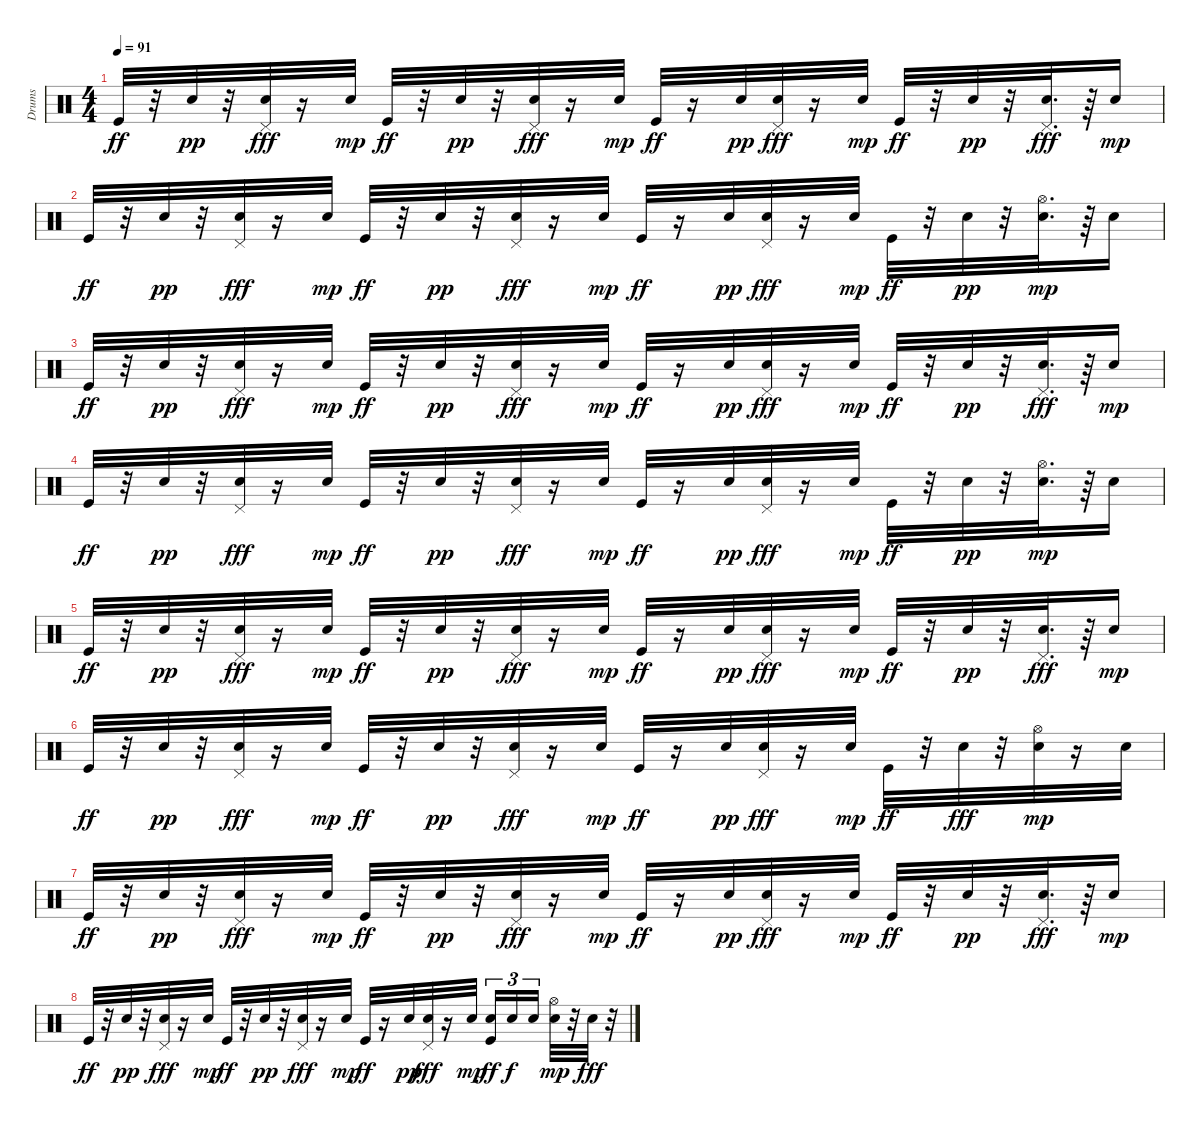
\track ("Drums" "Drums") {instrument percussion}
\staff {score}
\articulation defaults
\ts (4 4)
\tempo 91
\clef neutral
\ks c "Kick (hit)".32{dy ff}
r.32 "Snare (hit) 2".32{dy pp} r.32 ("Snare (hit) 2" "Pedal Hi-Hat (hit)").32{dy fff} r.16 "Snare (hit) 2".32{dy mp} "Kick (hit)".32{dy ff} r.32 "Snare (hit) 2".32{dy pp} r.32 ("Snare (hit) 2" "Pedal Hi-Hat (hit)").32{dy fff} r.16 "Snare (hit) 2".32{dy mp} "Kick (hit)".32{dy ff} r.16 "Snare (hit) 2".32{dy pp} ("Snare (hit) 2" "Pedal Hi-Hat (hit)").32{dy fff} r.16 "Snare (hit) 2".32{dy mp} "Kick (hit)".32{dy ff} r.32 "Snare (hit) 2".32{dy pp} r.32 ("Snare (hit) 2" "Pedal Hi-Hat (hit)").32{d dy fff} r.64 "Snare (hit) 2".16{dy mp} |
"Kick (hit)".32{dy ff} r.32 "Snare (hit) 2".32{dy pp} r.32 ("Snare (hit) 2" "Pedal Hi-Hat (hit)").32{dy fff} r.16 "Snare (hit) 2".32{dy mp} "Kick (hit)".32{dy ff} r.32 "Snare (hit) 2".32{dy pp} r.32 ("Snare (hit) 2" "Pedal Hi-Hat (hit)").32{dy fff} r.16 "Snare (hit) 2".32{dy mp} "Kick (hit)".32{dy ff} r.16 "Snare (hit) 2".32{dy pp} ("Snare (hit) 2" "Pedal Hi-Hat (hit)").32{dy fff} r.16 "Snare (hit) 2".32{dy mp} "Kick (hit)".32{dy ff} r.32 "Snare (hit) 2".32{dy pp} r.32 ("Snare (hit) 2" "Hi-Hat (open)").32{d dy mp} r.64 "Snare (hit) 2".16 |
"Kick (hit)".32{dy ff} r.32 "Snare (hit) 2".32{dy pp} r.32 ("Snare (hit) 2" "Pedal Hi-Hat (hit)").32{dy fff} r.16 "Snare (hit) 2".32{dy mp} "Kick (hit)".32{dy ff} r.32 "Snare (hit) 2".32{dy pp} r.32 ("Snare (hit) 2" "Pedal Hi-Hat (hit)").32{dy fff} r.16 "Snare (hit) 2".32{dy mp} "Kick (hit)".32{dy ff} r.16 "Snare (hit) 2".32{dy pp} ("Snare (hit) 2" "Pedal Hi-Hat (hit)").32{dy fff} r.16 "Snare (hit) 2".32{dy mp} "Kick (hit)".32{dy ff} r.32 "Snare (hit) 2".32{dy pp} r.32 ("Snare (hit) 2" "Pedal Hi-Hat (hit)").32{d dy fff} r.64 "Snare (hit) 2".16{dy mp} |
"Kick (hit)".32{dy ff} r.32 "Snare (hit) 2".32{dy pp} r.32 ("Snare (hit) 2" "Pedal Hi-Hat (hit)").32{dy fff} r.16 "Snare (hit) 2".32{dy mp} "Kick (hit)".32{dy ff} r.32 "Snare (hit) 2".32{dy pp} r.32 ("Snare (hit) 2" "Pedal Hi-Hat (hit)").32{dy fff} r.16 "Snare (hit) 2".32{dy mp} "Kick (hit)".32{dy ff} r.16 "Snare (hit) 2".32{dy pp} ("Snare (hit) 2" "Pedal Hi-Hat (hit)").32{dy fff} r.16 "Snare (hit) 2".32{dy mp} "Kick (hit)".32{dy ff} r.32 "Snare (hit) 2".32{dy pp} r.32 ("Snare (hit) 2" "Hi-Hat (open)").32{d dy mp} r.64 "Snare (hit) 2".16 |
"Kick (hit)".32{dy ff} r.32 "Snare (hit) 2".32{dy pp} r.32 ("Snare (hit) 2" "Pedal Hi-Hat (hit)").32{dy fff} r.16 "Snare (hit) 2".32{dy mp} "Kick (hit)".32{dy ff} r.32 "Snare (hit) 2".32{dy pp} r.32 ("Snare (hit) 2" "Pedal Hi-Hat (hit)").32{dy fff} r.16 "Snare (hit) 2".32{dy mp} "Kick (hit)".32{dy ff} r.16 "Snare (hit) 2".32{dy pp} ("Snare (hit) 2" "Pedal Hi-Hat (hit)").32{dy fff} r.16 "Snare (hit) 2".32{dy mp} "Kick (hit)".32{dy ff} r.32 "Snare (hit) 2".32{dy pp} r.32 ("Snare (hit) 2" "Pedal Hi-Hat (hit)").32{d dy fff} r.64 "Snare (hit) 2".16{dy mp} |
"Kick (hit)".32{dy ff} r.32 "Snare (hit) 2".32{dy pp} r.32 ("Snare (hit) 2" "Pedal Hi-Hat (hit)").32{dy fff} r.16 "Snare (hit) 2".32{dy mp} "Kick (hit)".32{dy ff} r.32 "Snare (hit) 2".32{dy pp} r.32 ("Snare (hit) 2" "Pedal Hi-Hat (hit)").32{dy fff} r.16 "Snare (hit) 2".32{dy mp} "Kick (hit)".32{dy ff} r.16 "Snare (hit) 2".32{dy pp} ("Snare (hit) 2" "Pedal Hi-Hat (hit)").32{dy fff} r.16 "Snare (hit) 2".32{dy mp} "Kick (hit)".32{dy ff} r.32 "Snare (hit) 2".32{dy fff} r.32 ("Snare (hit) 2" "Hi-Hat (open)").32{dy mp} r.16 "Snare (hit) 2".32 |
"Kick (hit)".32{dy ff} r.32 "Snare (hit) 2".32{dy pp} r.32 ("Snare (hit) 2" "Pedal Hi-Hat (hit)").32{dy fff} r.16 "Snare (hit) 2".32{dy mp} "Kick (hit)".32{dy ff} r.32 "Snare (hit) 2".32{dy pp} r.32 ("Snare (hit) 2" "Pedal Hi-Hat (hit)").32{dy fff} r.16 "Snare (hit) 2".32{dy mp} "Kick (hit)".32{dy ff} r.16 "Snare (hit) 2".32{dy pp} ("Snare (hit) 2" "Pedal Hi-Hat (hit)").32{dy fff} r.16 "Snare (hit) 2".32{dy mp} "Kick (hit)".32{dy ff} r.32 "Snare (hit) 2".32{dy pp} r.32 ("Snare (hit) 2" "Pedal Hi-Hat (hit)").32{d dy fff} r.64 "Snare (hit) 2".16{dy mp} |
"Kick (hit)".32{dy ff} r.32 "Snare (hit) 2".32{dy pp} r.32 ("Snare (hit) 2" "Pedal Hi-Hat (hit)").32{dy fff} r.16 "Snare (hit) 2".32{dy mp} "Kick (hit)".32{dy ff} r.32 "Snare (hit) 2".32{dy pp} r.32 ("Snare (hit) 2" "Pedal Hi-Hat (hit)").32{dy fff} r.16 "Snare (hit) 2".32{dy mp} "Kick (hit)".32{dy ff} r.16 "Snare (hit) 2".32{dy pp} ("Snare (hit) 2" "Pedal Hi-Hat (hit)").32{dy fff} r.16 "Snare (hit) 2".32{dy mp} ("Kick (hit)" "Snare (hit) 2").16{tu (3 2) dy ff} "Snare (hit) 2".16{tu (3 2) dy f} "Snare (hit) 2".16{tu (3 2) beam splitsecondary} ("Snare (hit) 2" "Hi-Hat (open)").32{dy mp} r.32 "Snare (hit) 2".32{dy fff} r.32
